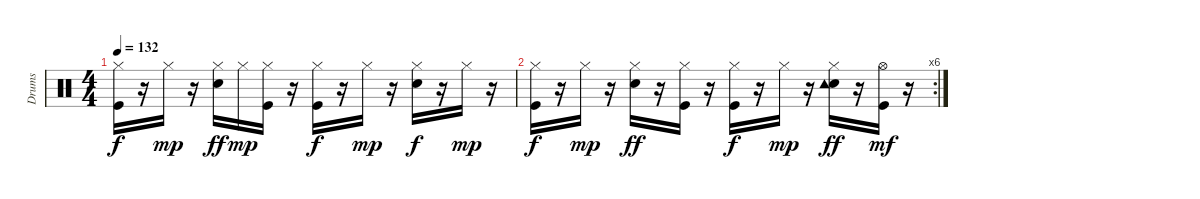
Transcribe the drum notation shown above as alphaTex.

\track ("Drums" "Drums") {instrument percussion}
\staff {score}
\articulation defaults
\ts (4 4)
\tempo 132
\clef neutral
\ks c
("Kick (hit)" "Hi-Hat (closed)").16{dy f} r.16 "Hi-Hat (closed)".16{dy mp} r.16 ("Snare (hit) 2" "Hi-Hat (closed)").16{dy ff} "Hi-Hat (closed)".16{dy mp} ("Kick (hit)" "Hi-Hat (closed)").16 r.16 ("Kick (hit)" "Hi-Hat (closed)").16{dy f} r.16 "Hi-Hat (closed)".16{dy mp} r.16 ("Snare (hit) 2" "Hi-Hat (closed)").16{dy f} r.16 "Hi-Hat (closed)".16{dy mp} r.16 |
\rc 6
("Kick (hit)" "Hi-Hat (closed)").16{dy f} r.16 "Hi-Hat (closed)".16{dy mp} r.16 ("Snare (hit) 2" "Hi-Hat (closed)").16{dy ff} r.16 ("Kick (hit)" "Hi-Hat (closed)").16 r.16 ("Kick (hit)" "Hi-Hat (closed)").16{dy f} r.16 "Hi-Hat (closed)".16{dy mp} r.16 ("Snare (hit) 2" "Hi-Hat (closed)" "Tambourine (hit)").16{dy ff} r.16 ("Kick (hit)" "Hi-Hat (open)").16{dy mf} r.16
